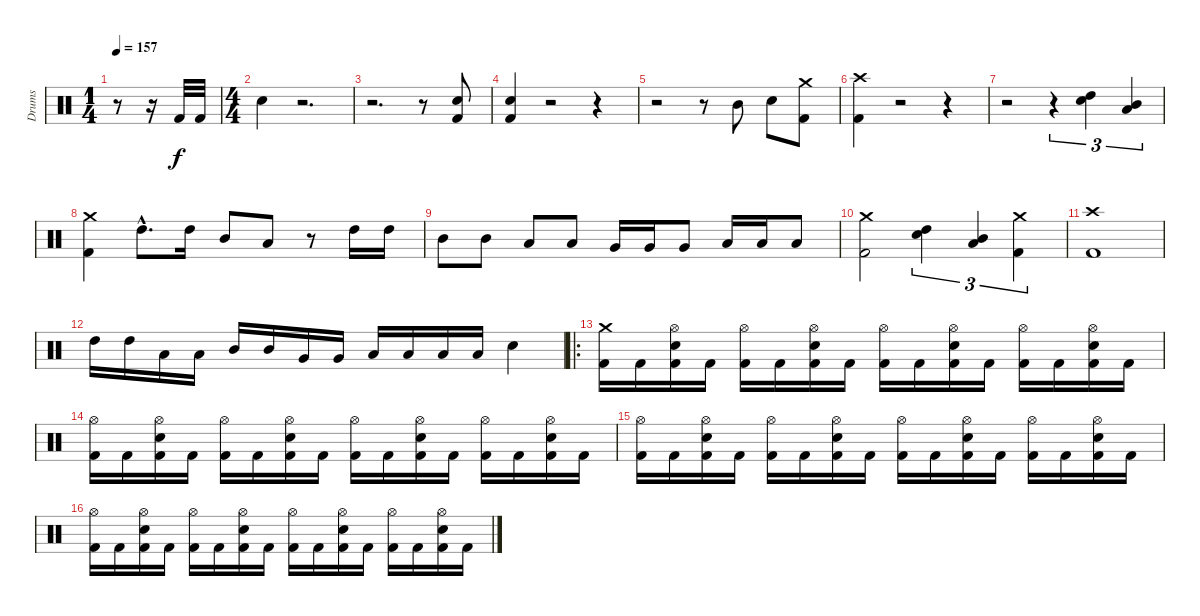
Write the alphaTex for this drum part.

\track ("Drums" "Drums") {instrument percussion}
\staff {score}
\articulation defaults
\ts (1 4)
\tempo 157
\clef neutral
\ks c
r.8{dy f} r.16 "Kick (hit) 2".32 "Kick (hit) 2".32 |
\ts (4 4)
"Electric Snare (hit)".4 r.2{d} |
r.2{d} r.8 ("Kick (hit) 2" "Electric Snare (hit)").8 |
("Kick (hit) 2" "Electric Snare (hit)").4 r.2 r.4 |
r.2 r.8 "Mid Tom (hit)".8 "Electric Snare (hit)".8 ("Kick (hit) 2" "Crash medium (hit)").8 |
("Kick (hit) 2" "Crash high (hit)").4 r.2 r.4 |
r.2 r.4{tu (3 2)} ("High Tom (hit)" "Electric Snare (hit)").4{tu (3 2)} ("Mid Tom (hit)" "Low Tom (hit)").4{tu (3 2)} |
("Kick (hit) 2" "Crash medium (hit)").4 "High Tom (hit)"{hac}.8{d} "High Tom (hit)".16 "Mid Tom (hit)".8 "Low Tom (hit)".8 r.8 "High Tom (hit)".16 "High Tom (hit)".16 |
"Mid Tom (hit)".8 "Mid Tom (hit)".8 "Low Tom (hit)".8 "Low Tom (hit)".8 "Very Low Tom (hit)".16 "Very Low Tom (hit)".16 "Very Low Tom (hit)".8 "Low Floor Tom (hit)".16 "Low Floor Tom (hit)".16 "Low Floor Tom (hit)".8 |
("Kick (hit) 2" "Crash medium (hit)").2 ("High Tom (hit)" "Electric Snare (hit)").4{tu (3 2)} ("Mid Tom (hit)" "Low Tom (hit)").4{tu (3 2)} ("Kick (hit) 2" "Crash medium (hit)").4{tu (3 2)} |
("Kick (hit) 2" "Crash high (hit)").1 |
"High Tom (hit)".16 "High Tom (hit)".16 "Low Tom (hit)".16 "Low Tom (hit)".16 "Mid Tom (hit)".16 "Mid Tom (hit)".16 "Very Low Tom (hit)".16 "Very Low Tom (hit)".16 "Low Tom (hit)".16 "Low Tom (hit)".16 "Low Floor Tom (hit)".16 "Low Floor Tom (hit)".16 "Electric Snare (hit)".4 |
\ro
("Kick (hit) 2" "Crash medium (hit)").16 "Kick (hit) 2".16 ("Kick (hit) 2" "Electric Snare (hit)" "Hi-Hat (open)").16 "Kick (hit) 2".16 ("Kick (hit) 2" "Hi-Hat (open)").16 "Kick (hit) 2".16 ("Kick (hit) 2" "Electric Snare (hit)" "Hi-Hat (open)").16 "Kick (hit) 2".16 ("Kick (hit) 2" "Hi-Hat (open)").16 "Kick (hit) 2".16 ("Kick (hit) 2" "Electric Snare (hit)" "Hi-Hat (open)").16 "Kick (hit) 2".16 ("Kick (hit) 2" "Hi-Hat (open)").16 "Kick (hit) 2".16 ("Kick (hit) 2" "Electric Snare (hit)" "Hi-Hat (open)").16 "Kick (hit) 2".16 |
("Kick (hit) 2" "Hi-Hat (open)").16 "Kick (hit) 2".16 ("Kick (hit) 2" "Electric Snare (hit)" "Hi-Hat (open)").16 "Kick (hit) 2".16 ("Kick (hit) 2" "Hi-Hat (open)").16 "Kick (hit) 2".16 ("Kick (hit) 2" "Electric Snare (hit)" "Hi-Hat (open)").16 "Kick (hit) 2".16 ("Kick (hit) 2" "Hi-Hat (open)").16 "Kick (hit) 2".16 ("Kick (hit) 2" "Electric Snare (hit)" "Hi-Hat (open)").16 "Kick (hit) 2".16 ("Kick (hit) 2" "Hi-Hat (open)").16 "Kick (hit) 2".16 ("Kick (hit) 2" "Electric Snare (hit)" "Hi-Hat (open)").16 "Kick (hit) 2".16 |
("Kick (hit) 2" "Hi-Hat (open)").16 "Kick (hit) 2".16 ("Kick (hit) 2" "Electric Snare (hit)" "Hi-Hat (open)").16 "Kick (hit) 2".16 ("Kick (hit) 2" "Hi-Hat (open)").16 "Kick (hit) 2".16 ("Kick (hit) 2" "Electric Snare (hit)" "Hi-Hat (open)").16 "Kick (hit) 2".16 ("Kick (hit) 2" "Hi-Hat (open)").16 "Kick (hit) 2".16 ("Kick (hit) 2" "Electric Snare (hit)" "Hi-Hat (open)").16 "Kick (hit) 2".16 ("Kick (hit) 2" "Hi-Hat (open)").16 "Kick (hit) 2".16 ("Kick (hit) 2" "Electric Snare (hit)" "Hi-Hat (open)").16 "Kick (hit) 2".16 |
("Kick (hit) 2" "Hi-Hat (open)").16 "Kick (hit) 2".16 ("Kick (hit) 2" "Electric Snare (hit)" "Hi-Hat (open)").16 "Kick (hit) 2".16 ("Kick (hit) 2" "Hi-Hat (open)").16 "Kick (hit) 2".16 ("Kick (hit) 2" "Electric Snare (hit)" "Hi-Hat (open)").16 "Kick (hit) 2".16 ("Kick (hit) 2" "Hi-Hat (open)").16 "Kick (hit) 2".16 ("Kick (hit) 2" "Electric Snare (hit)" "Hi-Hat (open)").16 "Kick (hit) 2".16 ("Kick (hit) 2" "Hi-Hat (open)").16 "Kick (hit) 2".16 ("Kick (hit) 2" "Electric Snare (hit)" "Hi-Hat (open)").16 "Kick (hit) 2".16
